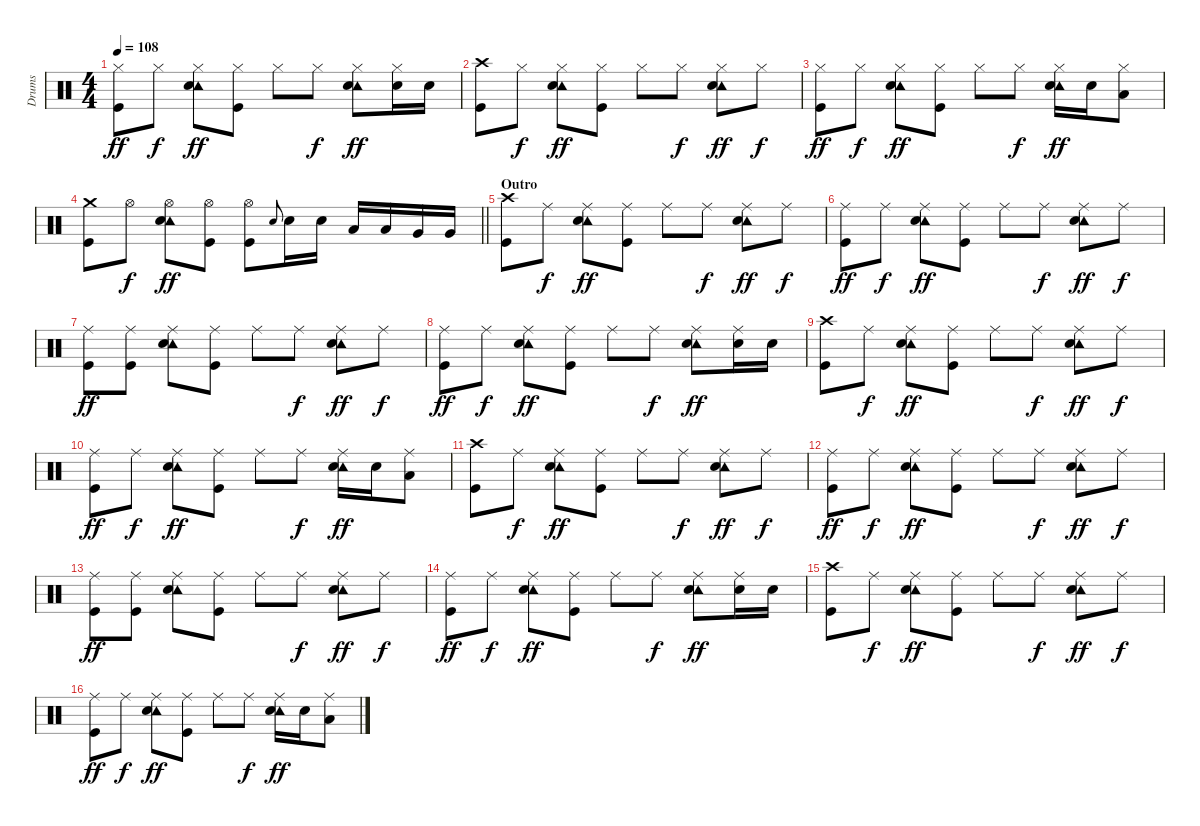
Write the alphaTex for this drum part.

\track ("Drums" "Drums") {instrument percussion}
\staff {score}
\articulation defaults
\ts (4 4)
\tempo 108
\clef neutral
\ks c
("Hi-Hat (closed)" "Kick (hit)").8{dy ff} "Hi-Hat (closed)".8{dy f} ("Hi-Hat (closed)" "Tambourine (hit)" "Electric Snare (hit)").8{dy ff} ("Hi-Hat (closed)" "Kick (hit)").8 "Hi-Hat (closed)".8 "Hi-Hat (closed)".8{dy f} ("Hi-Hat (closed)" "Tambourine (hit)" "Electric Snare (hit)").8{dy ff} ("Hi-Hat (closed)" "Electric Snare (hit)").16 "Electric Snare (hit)".16 |
("Crash high (hit)" "Kick (hit)").8 "Hi-Hat (closed)".8{dy f} ("Hi-Hat (closed)" "Tambourine (hit)" "Electric Snare (hit)").8{dy ff} ("Hi-Hat (closed)" "Kick (hit)").8 "Hi-Hat (closed)".8 "Hi-Hat (closed)".8{dy f} ("Hi-Hat (closed)" "Tambourine (hit)" "Electric Snare (hit)").8{dy ff} "Hi-Hat (closed)".8{dy f} |
("Hi-Hat (closed)" "Kick (hit)").8{dy ff} "Hi-Hat (closed)".8{dy f} ("Hi-Hat (closed)" "Tambourine (hit)" "Electric Snare (hit)").8{dy ff} ("Hi-Hat (closed)" "Kick (hit)").8 "Hi-Hat (closed)".8 "Hi-Hat (closed)".8{dy f} ("Hi-Hat (closed)" "Tambourine (hit)" "Electric Snare (hit)").16{dy ff} "Electric Snare (hit)".16 ("Hi-Hat (closed)" "Low Tom (hit)").8 |
\barLineRight lightlight
("Crash medium (hit)" "Kick (hit)").8 "Hi-Hat (open)".8{dy f} ("Hi-Hat (open)" "Tambourine (hit)" "Electric Snare (hit)").8{dy ff} ("Hi-Hat (open)" "Kick (hit)").8 ("Hi-Hat (open)" "Kick (hit)").8 "Electric Snare (hit)".8{gr onbeat} "Electric Snare (hit)".16 "Electric Snare (hit)".16 "Low Tom (hit)".16 "Low Tom (hit)".16 "Very Low Tom (hit)".16 "Very Low Tom (hit)".16 |
\section ("" "Outro")
("Crash high (hit)" "Kick (hit)").8 "Ride (middle)".8{dy f} ("Ride (middle)" "Tambourine (hit)" "Electric Snare (hit)").8{dy ff} ("Ride (middle)" "Kick (hit)").8 "Ride (middle)".8 "Ride (middle)".8{dy f} ("Ride (middle)" "Tambourine (hit)" "Electric Snare (hit)").8{dy ff} "Ride (middle)".8{dy f} |
("Ride (middle)" "Kick (hit)").8{dy ff} "Ride (middle)".8{dy f} ("Ride (middle)" "Tambourine (hit)" "Electric Snare (hit)").8{dy ff} ("Ride (middle)" "Kick (hit)").8 "Ride (middle)".8 "Ride (middle)".8{dy f} ("Ride (middle)" "Tambourine (hit)" "Electric Snare (hit)").8{dy ff} "Ride (middle)".8{dy f} |
("Ride (middle)" "Kick (hit)").8{dy ff} ("Ride (middle)" "Kick (hit)").8 ("Ride (middle)" "Tambourine (hit)" "Electric Snare (hit)").8 ("Ride (middle)" "Kick (hit)").8 "Ride (middle)".8 "Ride (middle)".8{dy f} ("Ride (middle)" "Tambourine (hit)" "Electric Snare (hit)").8{dy ff} "Ride (middle)".8{dy f} |
("Ride (middle)" "Kick (hit)").8{dy ff} "Ride (middle)".8{dy f} ("Ride (middle)" "Tambourine (hit)" "Electric Snare (hit)").8{dy ff} ("Ride (middle)" "Kick (hit)").8 "Ride (middle)".8 "Ride (middle)".8{dy f} ("Ride (middle)" "Tambourine (hit)" "Electric Snare (hit)").8{dy ff} ("Ride (middle)" "Electric Snare (hit)").16 "Electric Snare (hit)".16 |
("Crash high (hit)" "Kick (hit)").8 "Ride (middle)".8{dy f} ("Ride (middle)" "Tambourine (hit)" "Electric Snare (hit)").8{dy ff} ("Ride (middle)" "Kick (hit)").8 "Ride (middle)".8 "Ride (middle)".8{dy f} ("Ride (middle)" "Tambourine (hit)" "Electric Snare (hit)").8{dy ff} "Ride (middle)".8{dy f} |
("Ride (middle)" "Kick (hit)").8{dy ff} "Ride (middle)".8{dy f} ("Ride (middle)" "Tambourine (hit)" "Electric Snare (hit)").8{dy ff} ("Ride (middle)" "Kick (hit)").8 "Ride (middle)".8 "Ride (middle)".8{dy f} ("Ride (middle)" "Tambourine (hit)" "Electric Snare (hit)").16{dy ff} "Electric Snare (hit)".16 ("Ride (middle)" "Low Tom (hit)").8 |
("Crash high (hit)" "Kick (hit)").8 "Ride (middle)".8{dy f} ("Ride (middle)" "Tambourine (hit)" "Electric Snare (hit)").8{dy ff} ("Ride (middle)" "Kick (hit)").8 "Ride (middle)".8 "Ride (middle)".8{dy f} ("Ride (middle)" "Tambourine (hit)" "Electric Snare (hit)").8{dy ff} "Ride (middle)".8{dy f} |
("Ride (middle)" "Kick (hit)").8{dy ff} "Ride (middle)".8{dy f} ("Ride (middle)" "Tambourine (hit)" "Electric Snare (hit)").8{dy ff} ("Ride (middle)" "Kick (hit)").8 "Ride (middle)".8 "Ride (middle)".8{dy f} ("Ride (middle)" "Tambourine (hit)" "Electric Snare (hit)").8{dy ff} "Ride (middle)".8{dy f} |
("Ride (middle)" "Kick (hit)").8{dy ff} ("Ride (middle)" "Kick (hit)").8 ("Ride (middle)" "Tambourine (hit)" "Electric Snare (hit)").8 ("Ride (middle)" "Kick (hit)").8 "Ride (middle)".8 "Ride (middle)".8{dy f} ("Ride (middle)" "Tambourine (hit)" "Electric Snare (hit)").8{dy ff} "Ride (middle)".8{dy f} |
("Ride (middle)" "Kick (hit)").8{dy ff} "Ride (middle)".8{dy f} ("Ride (middle)" "Tambourine (hit)" "Electric Snare (hit)").8{dy ff} ("Ride (middle)" "Kick (hit)").8 "Ride (middle)".8 "Ride (middle)".8{dy f} ("Ride (middle)" "Tambourine (hit)" "Electric Snare (hit)").8{dy ff} ("Ride (middle)" "Electric Snare (hit)").16 "Electric Snare (hit)".16 |
("Crash high (hit)" "Kick (hit)").8 "Ride (middle)".8{dy f} ("Ride (middle)" "Tambourine (hit)" "Electric Snare (hit)").8{dy ff} ("Ride (middle)" "Kick (hit)").8 "Ride (middle)".8 "Ride (middle)".8{dy f} ("Ride (middle)" "Tambourine (hit)" "Electric Snare (hit)").8{dy ff} "Ride (middle)".8{dy f} |
("Ride (middle)" "Kick (hit)").8{dy ff} "Ride (middle)".8{dy f} ("Ride (middle)" "Tambourine (hit)" "Electric Snare (hit)").8{dy ff} ("Ride (middle)" "Kick (hit)").8 "Ride (middle)".8 "Ride (middle)".8{dy f} ("Ride (middle)" "Tambourine (hit)" "Electric Snare (hit)").16{dy ff} "Electric Snare (hit)".16 ("Ride (middle)" "Low Tom (hit)").8
